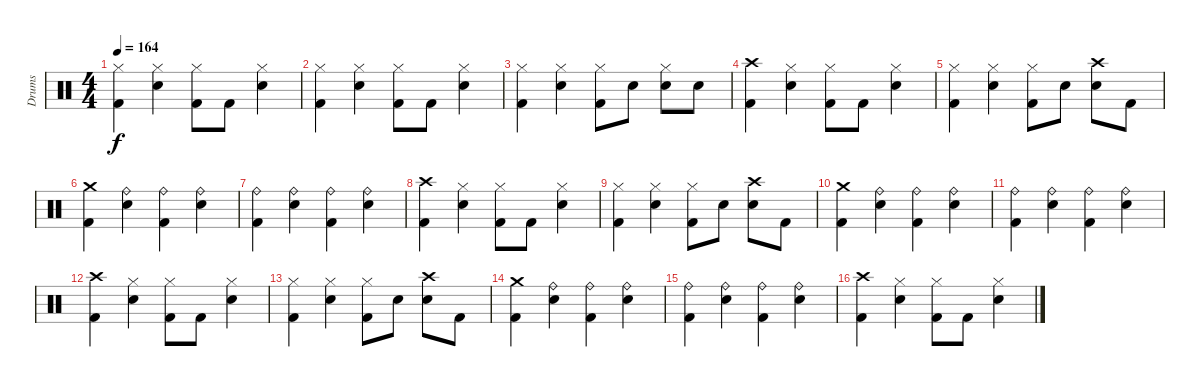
\track ("Drums" "Drums") {instrument percussion}
\staff {score}
\articulation defaults
\ts (4 4)
\tempo 164
\clef neutral
\ks c
("Kick (hit) 2" "Hi-Hat (closed)").4{dy f} ("Snare (hit) 2" "Hi-Hat (closed)").4 ("Kick (hit) 2" "Hi-Hat (closed)").8 "Kick (hit) 2".8 ("Snare (hit) 2" "Hi-Hat (closed)").4 |
("Kick (hit) 2" "Hi-Hat (closed)").4 ("Snare (hit) 2" "Hi-Hat (closed)").4 ("Kick (hit) 2" "Hi-Hat (closed)").8 "Kick (hit) 2".8 ("Snare (hit) 2" "Hi-Hat (closed)").4 |
("Kick (hit) 2" "Hi-Hat (closed)").4 ("Snare (hit) 2" "Hi-Hat (closed)").4 ("Kick (hit) 2" "Hi-Hat (closed)").8 "Snare (hit) 2".8 ("Snare (hit) 2" "Hi-Hat (closed)").8 "Snare (hit) 2".8 |
("Kick (hit) 2" "Crash high (hit)").4 ("Snare (hit) 2" "Hi-Hat (closed)").4 ("Kick (hit) 2" "Hi-Hat (closed)").8 "Kick (hit) 2".8 ("Snare (hit) 2" "Hi-Hat (closed)").4 |
("Kick (hit) 2" "Hi-Hat (closed)").4 ("Snare (hit) 2" "Hi-Hat (closed)").4 ("Kick (hit) 2" "Hi-Hat (closed)").8 "Snare (hit) 2".8 ("Snare (hit) 2" "Crash high (hit)").8 "Kick (hit) 2".8 |
("Kick (hit) 2" "Crash medium (hit)").4 ("Snare (hit) 2" "Ride (bell)").4 ("Kick (hit) 2" "Ride (bell)").4 ("Snare (hit) 2" "Ride (bell)").4 |
("Kick (hit) 2" "Ride (bell)").4 ("Snare (hit) 2" "Ride (bell)").4 ("Kick (hit) 2" "Ride (bell)").4 ("Snare (hit) 2" "Ride (bell)").4 |
("Kick (hit) 2" "Crash high (hit)").4 ("Snare (hit) 2" "Hi-Hat (closed)").4 ("Kick (hit) 2" "Hi-Hat (closed)").8 "Kick (hit) 2".8 ("Snare (hit) 2" "Hi-Hat (closed)").4 |
("Kick (hit) 2" "Hi-Hat (closed)").4 ("Snare (hit) 2" "Hi-Hat (closed)").4 ("Kick (hit) 2" "Hi-Hat (closed)").8 "Snare (hit) 2".8 ("Snare (hit) 2" "Crash high (hit)").8 "Kick (hit) 2".8 |
("Kick (hit) 2" "Crash medium (hit)").4 ("Snare (hit) 2" "Ride (bell)").4 ("Kick (hit) 2" "Ride (bell)").4 ("Snare (hit) 2" "Ride (bell)").4 |
("Kick (hit) 2" "Ride (bell)").4 ("Snare (hit) 2" "Ride (bell)").4 ("Kick (hit) 2" "Ride (bell)").4 ("Snare (hit) 2" "Ride (bell)").4 |
("Kick (hit) 2" "Crash high (hit)").4 ("Snare (hit) 2" "Hi-Hat (closed)").4 ("Kick (hit) 2" "Hi-Hat (closed)").8 "Kick (hit) 2".8 ("Snare (hit) 2" "Hi-Hat (closed)").4 |
("Kick (hit) 2" "Hi-Hat (closed)").4 ("Snare (hit) 2" "Hi-Hat (closed)").4 ("Kick (hit) 2" "Hi-Hat (closed)").8 "Snare (hit) 2".8 ("Snare (hit) 2" "Crash high (hit)").8 "Kick (hit) 2".8 |
("Kick (hit) 2" "Crash medium (hit)").4 ("Snare (hit) 2" "Ride (bell)").4 ("Kick (hit) 2" "Ride (bell)").4 ("Snare (hit) 2" "Ride (bell)").4 |
("Kick (hit) 2" "Ride (bell)").4 ("Snare (hit) 2" "Ride (bell)").4 ("Kick (hit) 2" "Ride (bell)").4 ("Snare (hit) 2" "Ride (bell)").4 |
("Kick (hit) 2" "Crash high (hit)").4 ("Snare (hit) 2" "Hi-Hat (closed)").4 ("Kick (hit) 2" "Hi-Hat (closed)").8 "Kick (hit) 2".8 ("Snare (hit) 2" "Hi-Hat (closed)").4
